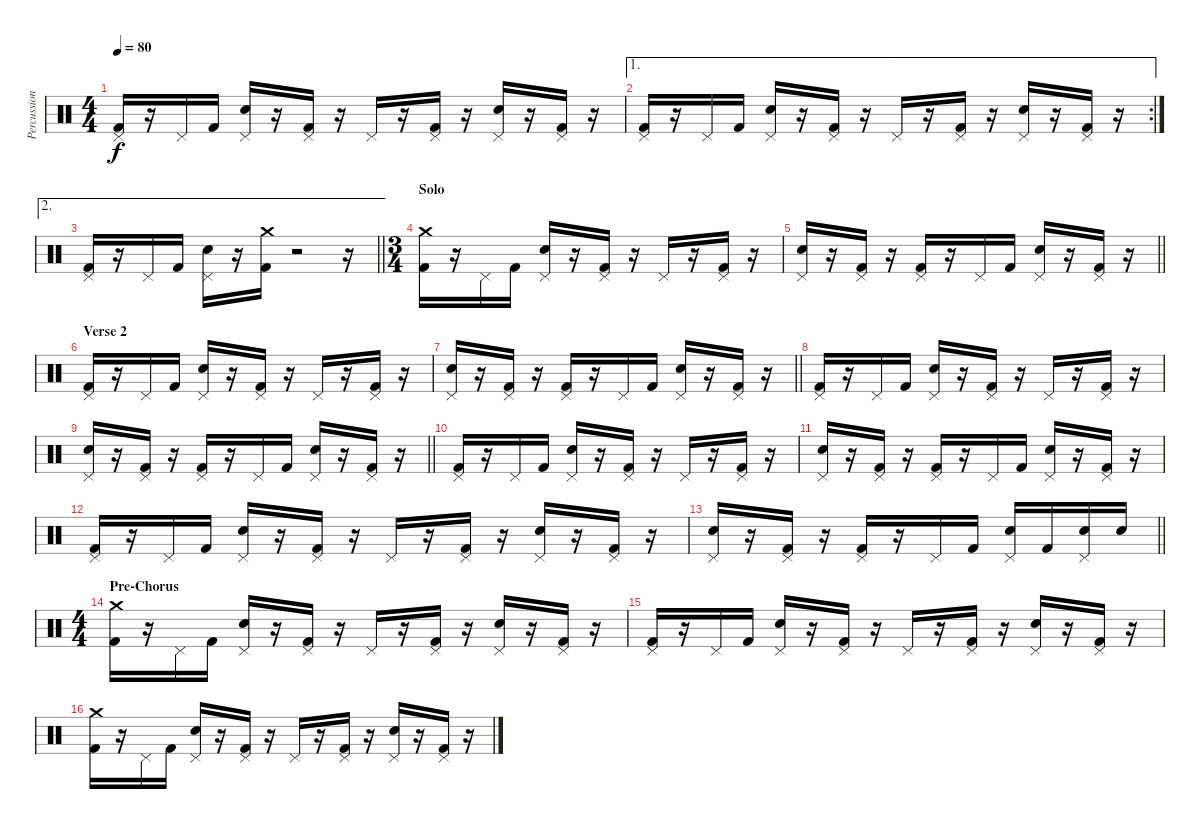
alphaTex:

\track ("Percussion (N. Sanderson)" "Percussion") {instrument percussion}
\staff {score}
\articulation defaults
\ts (4 4)
\tempo 80
\clef neutral
\ks c
("Pedal Hi-Hat (hit)" "Kick (hit) 2").16{dy f} r.16 "Pedal Hi-Hat (hit)".16 "Kick (hit) 2".16 ("Pedal Hi-Hat (hit)" "Electric Snare (hit)").16 r.16 ("Pedal Hi-Hat (hit)" "Kick (hit) 2").16 r.16 "Pedal Hi-Hat (hit)".16 r.16 ("Pedal Hi-Hat (hit)" "Kick (hit) 2").16 r.16 ("Pedal Hi-Hat (hit)" "Electric Snare (hit)").16 r.16 ("Pedal Hi-Hat (hit)" "Kick (hit) 2").16 r.16 |
\ae 1
\rc 2
("Pedal Hi-Hat (hit)" "Kick (hit) 2").16 r.16 "Pedal Hi-Hat (hit)".16 "Kick (hit) 2".16 ("Pedal Hi-Hat (hit)" "Electric Snare (hit)").16 r.16 ("Pedal Hi-Hat (hit)" "Kick (hit) 2").16 r.16 "Pedal Hi-Hat (hit)".16 r.16 ("Pedal Hi-Hat (hit)" "Kick (hit) 2").16 r.16 ("Pedal Hi-Hat (hit)" "Electric Snare (hit)").16 r.16 ("Pedal Hi-Hat (hit)" "Kick (hit) 2").16 r.16 |
\ae 2
\barLineRight lightlight
("Pedal Hi-Hat (hit)" "Kick (hit) 2").16 r.16 "Pedal Hi-Hat (hit)".16 "Kick (hit) 2".16 ("Pedal Hi-Hat (hit)" "Electric Snare (hit)").16 r.16 ("Crash medium (hit)" "Kick (hit) 2").16 r.2 r.16 |
\ts (3 4)
\section ("" "Solo")
("Crash medium (hit)" "Kick (hit) 2").16 r.16 "Pedal Hi-Hat (hit)".16 "Kick (hit) 2".16 ("Pedal Hi-Hat (hit)" "Electric Snare (hit)").16 r.16 ("Pedal Hi-Hat (hit)" "Kick (hit) 2").16 r.16 "Pedal Hi-Hat (hit)".16 r.16 ("Pedal Hi-Hat (hit)" "Kick (hit) 2").16 r.16 |
\barLineRight lightlight
("Pedal Hi-Hat (hit)" "Electric Snare (hit)").16 r.16 ("Pedal Hi-Hat (hit)" "Kick (hit) 2").16 r.16 ("Pedal Hi-Hat (hit)" "Kick (hit) 2").16 r.16 "Pedal Hi-Hat (hit)".16 "Kick (hit) 2".16 ("Pedal Hi-Hat (hit)" "Electric Snare (hit)").16 r.16 ("Pedal Hi-Hat (hit)" "Kick (hit) 2").16 r.16 |
\section ("" "Verse 2")
("Pedal Hi-Hat (hit)" "Kick (hit) 2").16 r.16 "Pedal Hi-Hat (hit)".16 "Kick (hit) 2".16 ("Pedal Hi-Hat (hit)" "Electric Snare (hit)").16 r.16 ("Pedal Hi-Hat (hit)" "Kick (hit) 2").16 r.16 "Pedal Hi-Hat (hit)".16 r.16 ("Pedal Hi-Hat (hit)" "Kick (hit) 2").16 r.16 |
\barLineRight lightlight
("Pedal Hi-Hat (hit)" "Electric Snare (hit)").16 r.16 ("Pedal Hi-Hat (hit)" "Kick (hit) 2").16 r.16 ("Pedal Hi-Hat (hit)" "Kick (hit) 2").16 r.16 "Pedal Hi-Hat (hit)".16 "Kick (hit) 2".16 ("Pedal Hi-Hat (hit)" "Electric Snare (hit)").16 r.16 ("Pedal Hi-Hat (hit)" "Kick (hit) 2").16 r.16 |
("Pedal Hi-Hat (hit)" "Kick (hit) 2").16 r.16 "Pedal Hi-Hat (hit)".16 "Kick (hit) 2".16 ("Pedal Hi-Hat (hit)" "Electric Snare (hit)").16 r.16 ("Pedal Hi-Hat (hit)" "Kick (hit) 2").16 r.16 "Pedal Hi-Hat (hit)".16 r.16 ("Pedal Hi-Hat (hit)" "Kick (hit) 2").16 r.16 |
\barLineRight lightlight
("Pedal Hi-Hat (hit)" "Electric Snare (hit)").16 r.16 ("Pedal Hi-Hat (hit)" "Kick (hit) 2").16 r.16 ("Pedal Hi-Hat (hit)" "Kick (hit) 2").16 r.16 "Pedal Hi-Hat (hit)".16 "Kick (hit) 2".16 ("Pedal Hi-Hat (hit)" "Electric Snare (hit)").16 r.16 ("Pedal Hi-Hat (hit)" "Kick (hit) 2").16 r.16 |
("Pedal Hi-Hat (hit)" "Kick (hit) 2").16 r.16 "Pedal Hi-Hat (hit)".16 "Kick (hit) 2".16 ("Pedal Hi-Hat (hit)" "Electric Snare (hit)").16 r.16 ("Pedal Hi-Hat (hit)" "Kick (hit) 2").16 r.16 "Pedal Hi-Hat (hit)".16 r.16 ("Pedal Hi-Hat (hit)" "Kick (hit) 2").16 r.16 |
("Pedal Hi-Hat (hit)" "Electric Snare (hit)").16 r.16 ("Pedal Hi-Hat (hit)" "Kick (hit) 2").16 r.16 ("Pedal Hi-Hat (hit)" "Kick (hit) 2").16 r.16 "Pedal Hi-Hat (hit)".16 "Kick (hit) 2".16 ("Pedal Hi-Hat (hit)" "Electric Snare (hit)").16 r.16 ("Pedal Hi-Hat (hit)" "Kick (hit) 2").16 r.16 |
("Pedal Hi-Hat (hit)" "Kick (hit) 2").16 r.16 "Pedal Hi-Hat (hit)".16 "Kick (hit) 2".16 ("Pedal Hi-Hat (hit)" "Electric Snare (hit)").16 r.16 ("Pedal Hi-Hat (hit)" "Kick (hit) 2").16 r.16 "Pedal Hi-Hat (hit)".16 r.16 ("Pedal Hi-Hat (hit)" "Kick (hit) 2").16 r.16 ("Pedal Hi-Hat (hit)" "Electric Snare (hit)").16 r.16 ("Pedal Hi-Hat (hit)" "Kick (hit) 2").16 r.16 |
\barLineRight lightlight
("Pedal Hi-Hat (hit)" "Electric Snare (hit)").16 r.16 ("Pedal Hi-Hat (hit)" "Kick (hit) 2").16 r.16 ("Pedal Hi-Hat (hit)" "Kick (hit) 2").16 r.16 "Pedal Hi-Hat (hit)".16 "Kick (hit) 2".16 ("Pedal Hi-Hat (hit)" "Electric Snare (hit)").16 "Kick (hit) 2".16 ("Pedal Hi-Hat (hit)" "Electric Snare (hit)").16 "Electric Snare (hit)".16 |
\ts (4 4)
\section ("" "Pre-Chorus")
("Crash medium (hit)" "Kick (hit) 2").16 r.16 "Pedal Hi-Hat (hit)".16 "Kick (hit) 2".16 ("Pedal Hi-Hat (hit)" "Electric Snare (hit)").16 r.16 ("Pedal Hi-Hat (hit)" "Kick (hit) 2").16 r.16 "Pedal Hi-Hat (hit)".16 r.16 ("Pedal Hi-Hat (hit)" "Kick (hit) 2").16 r.16 ("Pedal Hi-Hat (hit)" "Electric Snare (hit)").16 r.16 ("Pedal Hi-Hat (hit)" "Kick (hit) 2").16 r.16 |
("Pedal Hi-Hat (hit)" "Kick (hit) 2").16 r.16 "Pedal Hi-Hat (hit)".16 "Kick (hit) 2".16 ("Pedal Hi-Hat (hit)" "Electric Snare (hit)").16 r.16 ("Pedal Hi-Hat (hit)" "Kick (hit) 2").16 r.16 "Pedal Hi-Hat (hit)".16 r.16 ("Pedal Hi-Hat (hit)" "Kick (hit) 2").16 r.16 ("Pedal Hi-Hat (hit)" "Electric Snare (hit)").16 r.16 ("Pedal Hi-Hat (hit)" "Kick (hit) 2").16 r.16 |
("Crash medium (hit)" "Kick (hit) 2").16 r.16 "Pedal Hi-Hat (hit)".16 "Kick (hit) 2".16 ("Pedal Hi-Hat (hit)" "Electric Snare (hit)").16 r.16 ("Pedal Hi-Hat (hit)" "Kick (hit) 2").16 r.16 "Pedal Hi-Hat (hit)".16 r.16 ("Pedal Hi-Hat (hit)" "Kick (hit) 2").16 r.16 ("Pedal Hi-Hat (hit)" "Electric Snare (hit)").16 r.16 ("Pedal Hi-Hat (hit)" "Kick (hit) 2").16 r.16
